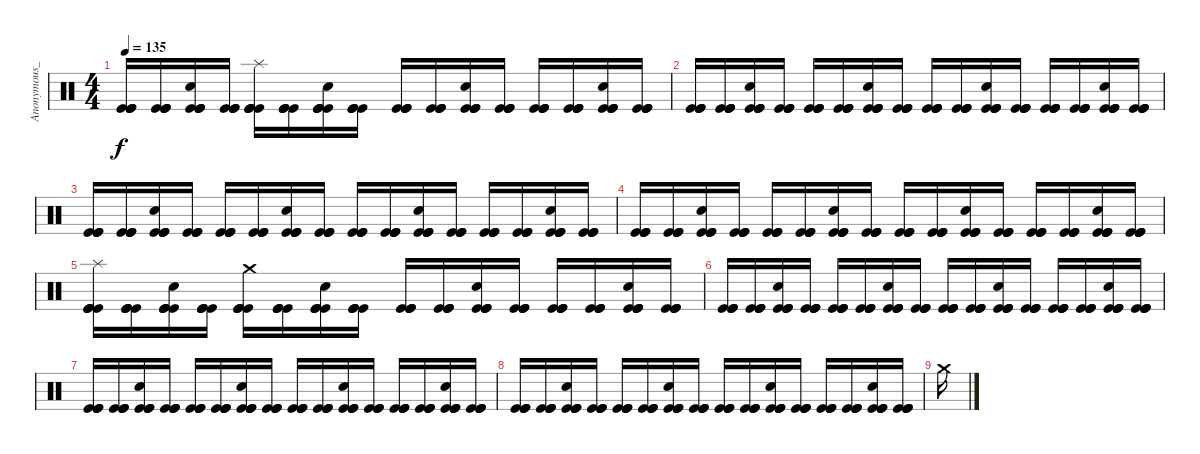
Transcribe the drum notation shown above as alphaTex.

\track ("Anonymous_Drums" "Anonymous_") {instrument percussion}
\staff {score}
\articulation defaults
\ts (4 4)
\tempo 135
\clef neutral
\ks c
("Kick (hit)" "Kick (hit)" "Kick (hit)" "Kick (hit)").16{dy f} ("Kick (hit)" "Kick (hit)" "Kick (hit)" "Kick (hit)").16 ("Kick (hit)" "Kick (hit)" "Snare (hit) 2" "Kick (hit)" "Kick (hit)").16 ("Kick (hit)" "Kick (hit)" "Kick (hit)" "Kick (hit)").16 ("Kick (hit)" "Splash (hit)" "Kick (hit)" "Kick (hit)" "Kick (hit)").16 ("Kick (hit)" "Kick (hit)" "Kick (hit)" "Kick (hit)").16 ("Kick (hit)" "Kick (hit)" "Snare (hit) 2" "Kick (hit)" "Kick (hit)").16 ("Kick (hit)" "Kick (hit)" "Kick (hit)" "Kick (hit)").16 ("Kick (hit)" "Kick (hit)" "Kick (hit)" "Kick (hit)").16 ("Kick (hit)" "Kick (hit)" "Kick (hit)" "Kick (hit)").16 ("Kick (hit)" "Kick (hit)" "Snare (hit) 2" "Kick (hit)" "Kick (hit)").16 ("Kick (hit)" "Kick (hit)" "Kick (hit)" "Kick (hit)").16 ("Kick (hit)" "Kick (hit)" "Kick (hit)" "Kick (hit)").16 ("Kick (hit)" "Kick (hit)" "Kick (hit)" "Kick (hit)").16 ("Kick (hit)" "Kick (hit)" "Snare (hit) 2" "Kick (hit)" "Kick (hit)").16 ("Kick (hit)" "Kick (hit)" "Kick (hit)" "Kick (hit)").16 |
("Kick (hit)" "Kick (hit)" "Kick (hit)" "Kick (hit)").16 ("Kick (hit)" "Kick (hit)" "Kick (hit)" "Kick (hit)").16 ("Kick (hit)" "Kick (hit)" "Snare (hit) 2" "Kick (hit)" "Kick (hit)").16 ("Kick (hit)" "Kick (hit)" "Kick (hit)" "Kick (hit)").16 ("Kick (hit)" "Kick (hit)" "Kick (hit)" "Kick (hit)").16 ("Kick (hit)" "Kick (hit)" "Kick (hit)" "Kick (hit)").16 ("Kick (hit)" "Kick (hit)" "Snare (hit) 2" "Kick (hit)" "Kick (hit)").16 ("Kick (hit)" "Kick (hit)" "Kick (hit)" "Kick (hit)").16 ("Kick (hit)" "Kick (hit)" "Kick (hit)" "Kick (hit)").16 ("Kick (hit)" "Kick (hit)" "Kick (hit)" "Kick (hit)").16 ("Kick (hit)" "Kick (hit)" "Snare (hit) 2" "Kick (hit)" "Kick (hit)").16 ("Kick (hit)" "Kick (hit)" "Kick (hit)" "Kick (hit)").16 ("Kick (hit)" "Kick (hit)" "Kick (hit)" "Kick (hit)").16 ("Kick (hit)" "Kick (hit)" "Kick (hit)" "Kick (hit)").16 ("Kick (hit)" "Kick (hit)" "Snare (hit) 2" "Kick (hit)" "Kick (hit)").16 ("Kick (hit)" "Kick (hit)" "Kick (hit)" "Kick (hit)").16 |
("Kick (hit)" "Kick (hit)" "Kick (hit)" "Kick (hit)").16 ("Kick (hit)" "Kick (hit)" "Kick (hit)" "Kick (hit)").16 ("Kick (hit)" "Kick (hit)" "Snare (hit) 2" "Kick (hit)" "Kick (hit)").16 ("Kick (hit)" "Kick (hit)" "Kick (hit)" "Kick (hit)").16 ("Kick (hit)" "Kick (hit)" "Kick (hit)" "Kick (hit)").16 ("Kick (hit)" "Kick (hit)" "Kick (hit)" "Kick (hit)").16 ("Kick (hit)" "Kick (hit)" "Snare (hit) 2" "Kick (hit)" "Kick (hit)").16 ("Kick (hit)" "Kick (hit)" "Kick (hit)" "Kick (hit)").16 ("Kick (hit)" "Kick (hit)" "Kick (hit)" "Kick (hit)").16 ("Kick (hit)" "Kick (hit)" "Kick (hit)" "Kick (hit)").16 ("Kick (hit)" "Kick (hit)" "Snare (hit) 2" "Kick (hit)" "Kick (hit)").16 ("Kick (hit)" "Kick (hit)" "Kick (hit)" "Kick (hit)").16 ("Kick (hit)" "Kick (hit)" "Kick (hit)" "Kick (hit)").16 ("Kick (hit)" "Kick (hit)" "Kick (hit)" "Kick (hit)").16 ("Kick (hit)" "Kick (hit)" "Snare (hit) 2" "Kick (hit)" "Kick (hit)").16 ("Kick (hit)" "Kick (hit)" "Kick (hit)" "Kick (hit)").16 |
("Kick (hit)" "Kick (hit)" "Kick (hit)" "Kick (hit)").16 ("Kick (hit)" "Kick (hit)" "Kick (hit)" "Kick (hit)").16 ("Kick (hit)" "Kick (hit)" "Snare (hit) 2" "Kick (hit)" "Kick (hit)").16 ("Kick (hit)" "Kick (hit)" "Kick (hit)" "Kick (hit)").16 ("Kick (hit)" "Kick (hit)" "Kick (hit)" "Kick (hit)").16 ("Kick (hit)" "Kick (hit)" "Kick (hit)" "Kick (hit)").16 ("Kick (hit)" "Kick (hit)" "Snare (hit) 2" "Kick (hit)" "Kick (hit)").16 ("Kick (hit)" "Kick (hit)" "Kick (hit)" "Kick (hit)").16 ("Kick (hit)" "Kick (hit)" "Kick (hit)" "Kick (hit)").16 ("Kick (hit)" "Kick (hit)" "Kick (hit)" "Kick (hit)").16 ("Kick (hit)" "Kick (hit)" "Snare (hit) 2" "Kick (hit)" "Kick (hit)").16 ("Kick (hit)" "Kick (hit)" "Kick (hit)" "Kick (hit)").16 ("Kick (hit)" "Kick (hit)" "Kick (hit)" "Kick (hit)").16 ("Kick (hit)" "Kick (hit)" "Kick (hit)" "Kick (hit)").16 ("Kick (hit)" "Kick (hit)" "Snare (hit) 2" "Kick (hit)" "Kick (hit)").16 ("Kick (hit)" "Kick (hit)" "Kick (hit)" "Kick (hit)").16 |
("Splash (hit)" "Kick (hit)" "Kick (hit)" "Kick (hit)" "Kick (hit)").16 ("Kick (hit)" "Kick (hit)" "Kick (hit)" "Kick (hit)").16 ("Kick (hit)" "Kick (hit)" "Snare (hit) 2" "Kick (hit)" "Kick (hit)").16 ("Kick (hit)" "Kick (hit)" "Kick (hit)" "Kick (hit)").16 ("Crash medium (hit)" "Kick (hit)" "Kick (hit)" "Kick (hit)" "Kick (hit)").16 ("Kick (hit)" "Kick (hit)" "Kick (hit)" "Kick (hit)").16 ("Kick (hit)" "Kick (hit)" "Snare (hit) 2" "Kick (hit)" "Kick (hit)").16 ("Kick (hit)" "Kick (hit)" "Kick (hit)" "Kick (hit)").16 ("Kick (hit)" "Kick (hit)" "Kick (hit)" "Kick (hit)").16 ("Kick (hit)" "Kick (hit)" "Kick (hit)" "Kick (hit)").16 ("Kick (hit)" "Kick (hit)" "Snare (hit) 2" "Kick (hit)" "Kick (hit)").16 ("Kick (hit)" "Kick (hit)" "Kick (hit)" "Kick (hit)").16 ("Kick (hit)" "Kick (hit)" "Kick (hit)" "Kick (hit)").16 ("Kick (hit)" "Kick (hit)" "Kick (hit)" "Kick (hit)").16 ("Kick (hit)" "Kick (hit)" "Snare (hit) 2" "Kick (hit)" "Kick (hit)").16 ("Kick (hit)" "Kick (hit)" "Kick (hit)" "Kick (hit)").16 |
("Kick (hit)" "Kick (hit)" "Kick (hit)" "Kick (hit)").16 ("Kick (hit)" "Kick (hit)" "Kick (hit)" "Kick (hit)").16 ("Kick (hit)" "Kick (hit)" "Snare (hit) 2" "Kick (hit)" "Kick (hit)").16 ("Kick (hit)" "Kick (hit)" "Kick (hit)" "Kick (hit)").16 ("Kick (hit)" "Kick (hit)" "Kick (hit)" "Kick (hit)").16 ("Kick (hit)" "Kick (hit)" "Kick (hit)" "Kick (hit)").16 ("Kick (hit)" "Kick (hit)" "Snare (hit) 2" "Kick (hit)" "Kick (hit)").16 ("Kick (hit)" "Kick (hit)" "Kick (hit)" "Kick (hit)").16 ("Kick (hit)" "Kick (hit)" "Kick (hit)" "Kick (hit)").16 ("Kick (hit)" "Kick (hit)" "Kick (hit)" "Kick (hit)").16 ("Kick (hit)" "Kick (hit)" "Snare (hit) 2" "Kick (hit)" "Kick (hit)").16 ("Kick (hit)" "Kick (hit)" "Kick (hit)" "Kick (hit)").16 ("Kick (hit)" "Kick (hit)" "Kick (hit)" "Kick (hit)").16 ("Kick (hit)" "Kick (hit)" "Kick (hit)" "Kick (hit)").16 ("Kick (hit)" "Kick (hit)" "Snare (hit) 2" "Kick (hit)" "Kick (hit)").16 ("Kick (hit)" "Kick (hit)" "Kick (hit)" "Kick (hit)").16 |
("Kick (hit)" "Kick (hit)" "Kick (hit)" "Kick (hit)").16 ("Kick (hit)" "Kick (hit)" "Kick (hit)" "Kick (hit)").16 ("Kick (hit)" "Kick (hit)" "Snare (hit) 2" "Kick (hit)" "Kick (hit)").16 ("Kick (hit)" "Kick (hit)" "Kick (hit)" "Kick (hit)").16 ("Kick (hit)" "Kick (hit)" "Kick (hit)" "Kick (hit)").16 ("Kick (hit)" "Kick (hit)" "Kick (hit)" "Kick (hit)").16 ("Kick (hit)" "Kick (hit)" "Snare (hit) 2" "Kick (hit)" "Kick (hit)").16 ("Kick (hit)" "Kick (hit)" "Kick (hit)" "Kick (hit)").16 ("Kick (hit)" "Kick (hit)" "Kick (hit)" "Kick (hit)").16 ("Kick (hit)" "Kick (hit)" "Kick (hit)" "Kick (hit)").16 ("Kick (hit)" "Kick (hit)" "Snare (hit) 2" "Kick (hit)" "Kick (hit)").16 ("Kick (hit)" "Kick (hit)" "Kick (hit)" "Kick (hit)").16 ("Kick (hit)" "Kick (hit)" "Kick (hit)" "Kick (hit)").16 ("Kick (hit)" "Kick (hit)" "Kick (hit)" "Kick (hit)").16 ("Kick (hit)" "Kick (hit)" "Snare (hit) 2" "Kick (hit)" "Kick (hit)").16 ("Kick (hit)" "Kick (hit)" "Kick (hit)" "Kick (hit)").16 |
("Kick (hit)" "Kick (hit)" "Kick (hit)" "Kick (hit)").16 ("Kick (hit)" "Kick (hit)" "Kick (hit)" "Kick (hit)").16 ("Kick (hit)" "Kick (hit)" "Snare (hit) 2" "Kick (hit)" "Kick (hit)").16 ("Kick (hit)" "Kick (hit)" "Kick (hit)" "Kick (hit)").16 ("Kick (hit)" "Kick (hit)" "Kick (hit)" "Kick (hit)").16 ("Kick (hit)" "Kick (hit)" "Kick (hit)" "Kick (hit)").16 ("Kick (hit)" "Kick (hit)" "Snare (hit) 2" "Kick (hit)" "Kick (hit)").16 ("Kick (hit)" "Kick (hit)" "Kick (hit)" "Kick (hit)").16 ("Kick (hit)" "Kick (hit)" "Kick (hit)" "Kick (hit)").16 ("Kick (hit)" "Kick (hit)" "Kick (hit)" "Kick (hit)").16 ("Kick (hit)" "Kick (hit)" "Snare (hit) 2" "Kick (hit)" "Kick (hit)").16 ("Kick (hit)" "Kick (hit)" "Kick (hit)" "Kick (hit)").16 ("Kick (hit)" "Kick (hit)" "Kick (hit)" "Kick (hit)").16 ("Kick (hit)" "Kick (hit)" "Kick (hit)" "Kick (hit)").16 ("Kick (hit)" "Kick (hit)" "Snare (hit) 2" "Kick (hit)" "Kick (hit)").16 ("Kick (hit)" "Kick (hit)" "Kick (hit)" "Kick (hit)").16 |
"Crash medium (hit)".16
